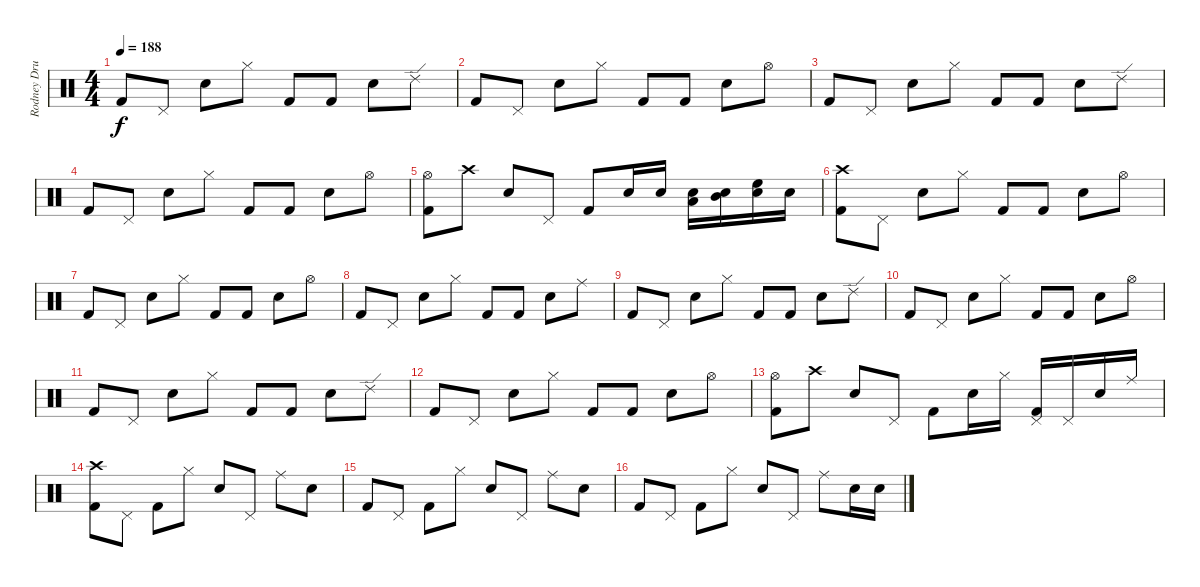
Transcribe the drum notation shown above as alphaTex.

\track ("Rodney Drums" "Rodney Dru") {instrument percussion}
\staff {score}
\articulation defaults
\ts (4 4)
\tempo 188
\clef neutral
\ks c "Kick (hit) 2".8{dy f} "Pedal Hi-Hat (hit)".8 "Electric Snare (hit)".8 "Hi-Hat (closed)".8 "Kick (hit) 2".8 "Kick (hit) 2".8 "Electric Snare (hit)".8 "Ride (edge) 2".8
|
"Kick (hit) 2".8 "Pedal Hi-Hat (hit)".8 "Electric Snare (hit)".8 "Hi-Hat (closed)".8 "Kick (hit) 2".8 "Kick (hit) 2".8 "Electric Snare (hit)".8 "Hi-Hat (open)".8 |
"Kick (hit) 2".8 "Pedal Hi-Hat (hit)".8 "Electric Snare (hit)".8 "Hi-Hat (closed)".8 "Kick (hit) 2".8 "Kick (hit) 2".8 "Electric Snare (hit)".8 "Ride (edge) 2".8 |
"Kick (hit) 2".8 "Pedal Hi-Hat (hit)".8 "Electric Snare (hit)".8 "Hi-Hat (closed)".8 "Kick (hit) 2".8 "Kick (hit) 2".8 "Electric Snare (hit)".8 "Hi-Hat (open)".8 |
("Hi-Hat (open)" "Kick (hit) 2").8 "Crash high (hit)".8 "Electric Snare (hit)".8 "Pedal Hi-Hat (hit)".8 "Kick (hit) 2".8 "Electric Snare (hit)".16 "Electric Snare (hit)".16 ("Electric Snare (hit)" "Low Tom (hit)").16 ("Mid Tom (hit)" "Electric Snare (hit)").16 ("High Floor Tom (hit)" "Electric Snare (hit)").16 "Electric Snare (hit)".16 |
("Crash high (hit)" "Kick (hit) 2").8 "Pedal Hi-Hat (hit)".8 "Electric Snare (hit)".8 "Hi-Hat (closed)".8 "Kick (hit) 2".8 "Kick (hit) 2".8 "Electric Snare (hit)".8 "Hi-Hat (open)".8 |
"Kick (hit) 2".8 "Pedal Hi-Hat (hit)".8 "Electric Snare (hit)".8 "Hi-Hat (closed)".8 "Kick (hit) 2".8 "Kick (hit) 2".8 "Electric Snare (hit)".8 "Hi-Hat (open)".8 |
"Kick (hit) 2".8 "Pedal Hi-Hat (hit)".8 "Electric Snare (hit)".8 "Hi-Hat (closed)".8 "Kick (hit) 2".8 "Kick (hit) 2".8 "Electric Snare (hit)".8 "Ride (middle)".8 |
"Kick (hit) 2".8 "Pedal Hi-Hat (hit)".8 "Electric Snare (hit)".8 "Hi-Hat (closed)".8 "Kick (hit) 2".8 "Kick (hit) 2".8 "Electric Snare (hit)".8 "Ride (edge) 2".8 |
"Kick (hit) 2".8 "Pedal Hi-Hat (hit)".8 "Electric Snare (hit)".8 "Hi-Hat (closed)".8 "Kick (hit) 2".8 "Kick (hit) 2".8 "Electric Snare (hit)".8 "Hi-Hat (open)".8 |
"Kick (hit) 2".8 "Pedal Hi-Hat (hit)".8 "Electric Snare (hit)".8 "Hi-Hat (closed)".8 "Kick (hit) 2".8 "Kick (hit) 2".8 "Electric Snare (hit)".8 "Ride (edge) 2".8 |
"Kick (hit) 2".8 "Pedal Hi-Hat (hit)".8 "Electric Snare (hit)".8 "Hi-Hat (closed)".8 "Kick (hit) 2".8 "Kick (hit) 2".8 "Electric Snare (hit)".8 "Hi-Hat (open)".8 |
("Hi-Hat (open)" "Kick (hit) 2").8 "Crash high (hit)".8 "Electric Snare (hit)".8 "Pedal Hi-Hat (hit)".8 "Kick (hit) 2".8 "Electric Snare (hit)".16 "Hi-Hat (closed)".16 ("Pedal Hi-Hat (hit)" "Kick (hit) 2").16 "Pedal Hi-Hat (hit)".16 "Electric Snare (hit)".16 "Ride (middle)".16 |
("Crash high (hit)" "Kick (hit) 2").8 "Pedal Hi-Hat (hit)".8 "Kick (hit) 2".8 "Hi-Hat (closed)".8 "Electric Snare (hit)".8 "Pedal Hi-Hat (hit)".8 "Ride (middle)".8 "Electric Snare (hit)".8 |
"Kick (hit) 2".8 "Pedal Hi-Hat (hit)".8 "Kick (hit) 2".8 "Hi-Hat (closed)".8 "Electric Snare (hit)".8 "Pedal Hi-Hat (hit)".8 "Ride (middle)".8 "Electric Snare (hit)".8 |
"Kick (hit) 2".8 "Pedal Hi-Hat (hit)".8 "Kick (hit) 2".8 "Hi-Hat (closed)".8 "Electric Snare (hit)".8 "Pedal Hi-Hat (hit)".8 "Ride (middle)".8 "Electric Snare (hit)".16 "Electric Snare (hit)".16
